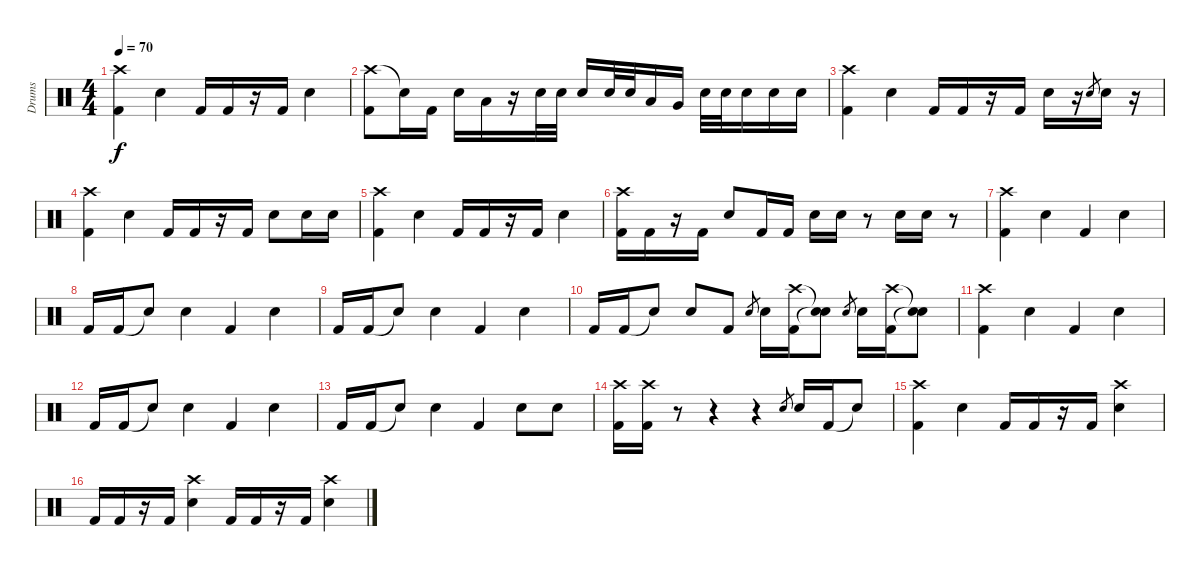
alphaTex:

\track ("Drums" "Drums") {instrument percussion}
\staff {score}
\articulation defaults
\ts (4 4)
\tempo 70
\clef neutral
\ks c
("Crash high (hit)" "Kick (hit) 2").4{dy f} "Electric Snare (hit)".4 "Kick (hit) 2".16 "Kick (hit) 2".16 r.16 "Kick (hit) 2".16 "Electric Snare (hit)".4 |
("Crash high (hit)" "Kick (hit) 2").8 "Snare (hit)"{t}.16 "Kick (hit) 2".16 "Electric Snare (hit)".16 "Low Tom (hit)".16 r.16 "Electric Snare (hit)".32 "Electric Snare (hit)".32 "Electric Snare (hit)".16 "Electric Snare (hit)".32 "Electric Snare (hit)".32 "Low Tom (hit)".16 "Very Low Tom (hit)".16 "Electric Snare (hit)".32 "Electric Snare (hit)".32 "Electric Snare (hit)".16 "Electric Snare (hit)".16 "Electric Snare (hit)".16 |
("Crash high (hit)" "Kick (hit) 2").4 "Electric Snare (hit)".4 "Kick (hit) 2".16 "Kick (hit) 2".16 r.16 "Kick (hit) 2".16 "Electric Snare (hit)".16 r.16 "Electric Snare (hit)".8{gr} "Electric Snare (hit)".16 r.16 |
("Crash high (hit)" "Kick (hit) 2").4 "Electric Snare (hit)".4 "Kick (hit) 2".16 "Kick (hit) 2".16 r.16 "Kick (hit) 2".16 "Electric Snare (hit)".8 "Electric Snare (hit)".16 "Electric Snare (hit)".16 |
("Crash high (hit)" "Kick (hit) 2").4 "Electric Snare (hit)".4 "Kick (hit) 2".16 "Kick (hit) 2".16 r.16 "Kick (hit) 2".16 "Electric Snare (hit)".4 |
("Crash high (hit)" "Kick (hit) 2").16 "Kick (hit) 2".16 r.16 "Kick (hit) 2".16 "Electric Snare (hit)".8 "Kick (hit) 2".16 "Kick (hit) 2".16 "Electric Snare (hit)".16 "Electric Snare (hit)".16 r.8 "Electric Snare (hit)".16 "Electric Snare (hit)".16 r.8 |
("Crash high (hit)" "Kick (hit) 2").4 "Electric Snare (hit)".4 "Kick (hit) 2".4 "Electric Snare (hit)".4 |
"Kick (hit) 2".16 "Kick (hit) 2".16 "Snare (hit)"{t}.8 "Electric Snare (hit)".4 "Kick (hit) 2".4 "Electric Snare (hit)".4 |
"Kick (hit) 2".16 "Kick (hit) 2".16 "Snare (hit)"{t}.8 "Electric Snare (hit)".4 "Kick (hit) 2".4 "Electric Snare (hit)".4 |
"Kick (hit) 2".16 "Kick (hit) 2".16 "Snare (hit)"{t}.8 "Electric Snare (hit)".8 "Kick (hit) 2".8 "Electric Snare (hit)".8{gr} "Electric Snare (hit)".16 ("Crash high (hit)" "Kick (hit) 2").16 ("Snare (hit)"{t} "Snare (hit)"{t}).8 "Electric Snare (hit)".8{gr} "Electric Snare (hit)".16 ("Crash high (hit)" "Kick (hit) 2").16 ("Snare (hit)"{t} "Snare (hit)"{t}).8 |
("Crash high (hit)" "Kick (hit) 2").4 "Electric Snare (hit)".4 "Kick (hit) 2".4 "Electric Snare (hit)".4 |
"Kick (hit) 2".16 "Kick (hit) 2".16 "Snare (hit)"{t}.8 "Electric Snare (hit)".4 "Kick (hit) 2".4 "Electric Snare (hit)".4 |
"Kick (hit) 2".16 "Kick (hit) 2".16 "Snare (hit)"{t}.8 "Electric Snare (hit)".4 "Kick (hit) 2".4 "Electric Snare (hit)".8 "Electric Snare (hit)".8 |
("Crash high (hit)" "Kick (hit) 2").16 ("Crash high (hit)" "Kick (hit) 2").16 r.8 r.4 r.4 "Electric Snare (hit)".8{gr} "Electric Snare (hit)".16 "Kick (hit) 2".16 "Snare (hit)"{t}.8 |
("Crash high (hit)" "Kick (hit) 2").4 "Electric Snare (hit)".4 "Kick (hit) 2".16 "Kick (hit) 2".16 r.16 "Kick (hit) 2".16 ("Crash high (hit)" "Electric Snare (hit)").4 |
"Kick (hit) 2".16 "Kick (hit) 2".16 r.16 "Kick (hit) 2".16 ("Crash high (hit)" "Electric Snare (hit)").4 "Kick (hit) 2".16 "Kick (hit) 2".16 r.16 "Kick (hit) 2".16 ("Crash high (hit)" "Electric Snare (hit)").4
